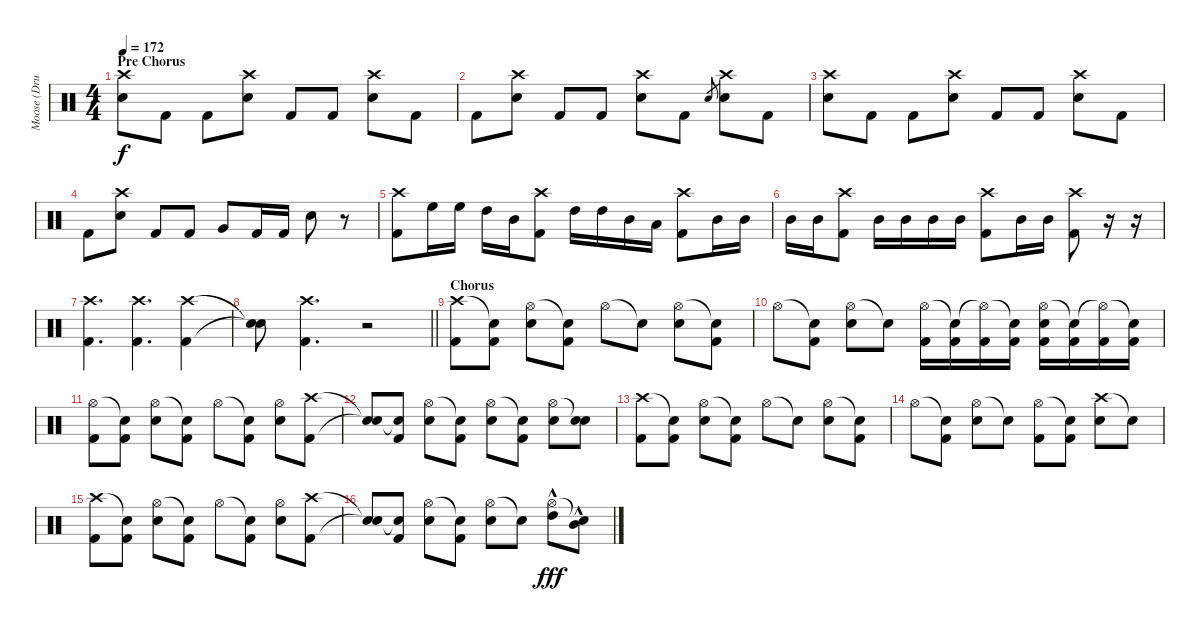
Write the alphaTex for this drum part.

\track ("Moose (Drums)" "Moose (Dru") {instrument percussion}
\staff {score}
\articulation defaults
\ts (4 4)
\section ("" "Pre Chorus")
\tempo 172
\clef neutral
\ks c
("Crash high (hit)" "Electric Snare (hit)").8{dy f} "Kick (hit) 2".8 "Kick (hit) 2".8 ("Crash high (hit)" "Electric Snare (hit)").8 "Kick (hit) 2".8 "Kick (hit) 2".8 ("Crash high (hit)" "Electric Snare (hit)").8 "Kick (hit) 2".8 |
"Kick (hit) 2".8 ("Crash high (hit)" "Electric Snare (hit)").8 "Kick (hit) 2".8 "Kick (hit) 2".8 ("Crash high (hit)" "Electric Snare (hit)").8 "Kick (hit) 2".8 "Electric Snare (hit)".8{gr} ("Crash high (hit)" "Electric Snare (hit)").8 "Kick (hit) 2".8 |
("Crash high (hit)" "Electric Snare (hit)").8 "Kick (hit) 2".8 "Kick (hit) 2".8 ("Crash high (hit)" "Electric Snare (hit)").8 "Kick (hit) 2".8 "Kick (hit) 2".8 ("Crash high (hit)" "Electric Snare (hit)").8 "Kick (hit) 2".8 |
"Kick (hit) 2".8 ("Crash high (hit)" "Electric Snare (hit)").8 "Kick (hit) 2".8 "Kick (hit) 2".8 "Very Low Tom (hit)".8 "Kick (hit) 2".16 "Kick (hit) 2".16 "Electric Snare (hit)".8 r.8 |
("Crash high (hit)" "Kick (hit) 2").8 "High Floor Tom (hit)".16 "High Floor Tom (hit)".16 "High Tom (hit)".16 "Mid Tom (hit)".16 ("Crash high (hit)" "Kick (hit) 2").8 "High Tom (hit)".16 "High Tom (hit)".16 "Mid Tom (hit)".16 "Low Tom (hit)".16 ("Crash high (hit)" "Kick (hit) 2").8 "Mid Tom (hit)".16 "Mid Tom (hit)".16 |
"Mid Tom (hit)".16 "Mid Tom (hit)".16 ("Crash high (hit)" "Kick (hit) 2").8 "Mid Tom (hit)".16 "Mid Tom (hit)".16 "Mid Tom (hit)".16 "Mid Tom (hit)".16 ("Crash high (hit)" "Kick (hit) 2").8 "Mid Tom (hit)".16 "Mid Tom (hit)".16 ("Crash high (hit)" "Kick (hit) 2").8 r.16 r.16 |
("Crash high (hit)" "Kick (hit) 2").4{d} ("Crash high (hit)" "Kick (hit) 2").4{d} ("Crash high (hit)" "Kick (hit) 2").4 |
\barLineRight lightlight
("Snare (hit)"{t} "Snare (hit)"{t}).8 ("Crash high (hit)" "Kick (hit) 2").4{d} r.2 |
\section ("" "Chorus")
("Crash high (hit)" "Kick (hit) 2").8 ("Snare (hit)"{t} "Kick (hit) 2").8 ("Hi-Hat (open)" "Electric Snare (hit)").8 ("Snare (hit)"{t} "Kick (hit) 2").8 "Hi-Hat (open)".8 "Snare (hit)"{t}.8 ("Hi-Hat (open)" "Electric Snare (hit)").8 ("Snare (hit)"{t} "Kick (hit) 2").8 |
"Hi-Hat (open)".8 ("Snare (hit)"{t} "Kick (hit) 2").8 ("Hi-Hat (open)" "Electric Snare (hit)").8 "Snare (hit)"{t}.8 ("Hi-Hat (open)" "Kick (hit) 2").16 ("Snare (hit)"{t} "Kick (hit) 2").16 ("Hi-Hat (open)"{t} "Kick (hit) 2").16 ("Snare (hit)"{t} "Kick (hit) 2").16 ("Hi-Hat (open)" "Electric Snare (hit)" "Kick (hit) 2").16 ("Snare (hit)"{t} "Kick (hit) 2").16 ("Hi-Hat (open)"{t} "Kick (hit) 2").16 ("Snare (hit)"{t} "Kick (hit) 2").16 |
("Hi-Hat (open)" "Kick (hit) 2").8 ("Snare (hit)"{t} "Kick (hit) 2").8 ("Hi-Hat (open)" "Electric Snare (hit)").8 ("Snare (hit)"{t} "Kick (hit) 2").8 "Hi-Hat (open)".8 ("Snare (hit)"{t} "Kick (hit) 2").8 ("Hi-Hat (open)" "Electric Snare (hit)").8 ("Crash high (hit)" "Kick (hit) 2").8 |
("Snare (hit)"{t} "Snare (hit)"{t}).8 ("Snare (hit)"{t} "Kick (hit) 2").8 ("Hi-Hat (open)" "Electric Snare (hit)").8 ("Snare (hit)"{t} "Kick (hit) 2").8 ("Hi-Hat (open)" "Electric Snare (hit)").8 ("Snare (hit)"{t} "Kick (hit) 2").8 ("Hi-Hat (open)" "Electric Snare (hit)").8 ("Snare (hit)"{t} "Electric Snare (hit)").8 |
("Crash high (hit)" "Kick (hit) 2").8 ("Snare (hit)"{t} "Kick (hit) 2").8 ("Hi-Hat (open)" "Electric Snare (hit)").8 ("Snare (hit)"{t} "Kick (hit) 2").8 "Hi-Hat (open)".8 "Snare (hit)"{t}.8 ("Hi-Hat (open)" "Electric Snare (hit)").8 ("Snare (hit)"{t} "Kick (hit) 2").8 |
"Hi-Hat (open)".8 ("Snare (hit)"{t} "Kick (hit) 2").8 ("Hi-Hat (open)" "Electric Snare (hit)").8 "Snare (hit)"{t}.8 ("Hi-Hat (open)" "Kick (hit) 2").8 ("Snare (hit)"{t} "Kick (hit) 2").8 ("Crash high (hit)" "Electric Snare (hit)").8 "Snare (hit)"{t}.8 |
("Crash high (hit)" "Kick (hit) 2").8 ("Snare (hit)"{t} "Kick (hit) 2").8 ("Hi-Hat (open)" "Electric Snare (hit)").8 ("Snare (hit)"{t} "Kick (hit) 2").8 "Hi-Hat (open)".8 ("Snare (hit)"{t} "Kick (hit) 2").8 ("Hi-Hat (open)" "Electric Snare (hit)").8 ("Crash high (hit)" "Kick (hit) 2").8 |
("Snare (hit)"{t} "Snare (hit)"{t}).8 ("Snare (hit)"{t} "Kick (hit) 2").8 ("Hi-Hat (open)" "Electric Snare (hit)").8 ("Snare (hit)"{t} "Kick (hit) 2").8 ("Hi-Hat (open)" "Electric Snare (hit)").8 "Snare (hit)"{t}.8 ("Hi-Hat (open)" "High Tom (hit)"{hac}).8{dy fff} ("Snare (hit)"{t} "Mid Tom (hit)"{hac}).8
